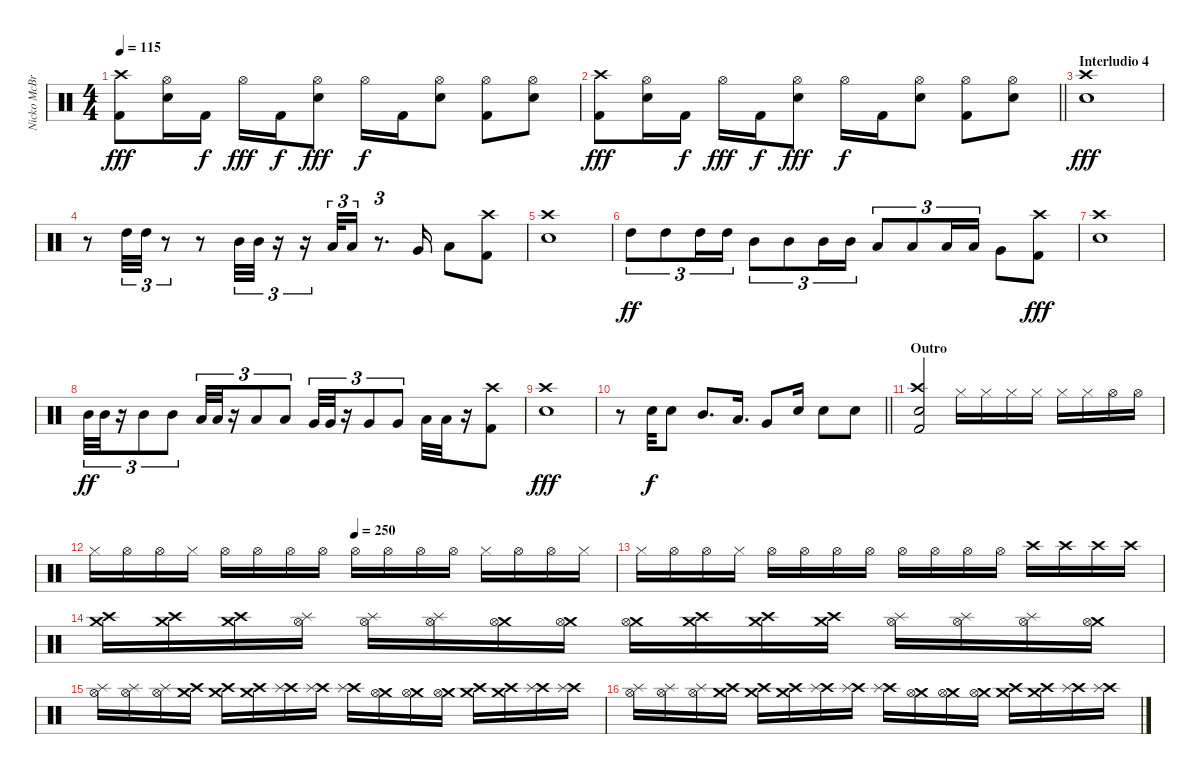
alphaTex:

\track ("Nicko McBrain" "Nicko McBr") {instrument percussion}
\staff {score}
\articulation defaults
\ts (4 4)
\tempo 115
\clef neutral
\ks c
("Kick (hit) 2" "Crash high (hit)").8{dy fff} ("Snare (hit) 2" "Hi-Hat (open)").16 "Kick (hit) 2".16{dy f} "Hi-Hat (open)".16{dy fff} "Kick (hit) 2".16{dy f} ("Snare (hit) 2" "Hi-Hat (open)").8{dy fff} "Hi-Hat (open)".16{dy f} "Kick (hit) 2".16 ("Snare (hit) 2" "Hi-Hat (open)").8 ("Kick (hit) 2" "Hi-Hat (open)").8 ("Snare (hit) 2" "Hi-Hat (open)").8 |
\barLineRight lightlight
("Kick (hit) 2" "Crash high (hit)").8{dy fff} ("Snare (hit) 2" "Hi-Hat (open)").16 "Kick (hit) 2".16{dy f} "Hi-Hat (open)".16{dy fff} "Kick (hit) 2".16{dy f} ("Snare (hit) 2" "Hi-Hat (open)").8{dy fff} "Hi-Hat (open)".16{dy f} "Kick (hit) 2".16 ("Snare (hit) 2" "Hi-Hat (open)").8 ("Kick (hit) 2" "Hi-Hat (open)").8 ("Snare (hit) 2" "Hi-Hat (open)").8 |
\section ("" "Interludio 4")
("Snare (hit) 2" "Crash high (hit)").1{dy fff} |
r.8 "High Tom (hit)".32{tu (3 2)} "High Tom (hit)".32{tu (3 2)} r.8{tu (3 2)} r.8 "Mid Tom (hit)".32{tu (3 2)} "Mid Tom (hit)".32{tu (3 2)} r.16{tu (3 2)} r.16{tu (3 2)} "Low Tom (hit)".32{tu (3 2)} "Low Tom (hit)".16{tu (3 2)} r.8{d tu (3 2)} "Very Low Tom (hit)".16 "Low Floor Tom (hit)".8 ("Kick (hit) 2" "Crash high (hit)").8 |
("Snare (hit) 2" "Crash high (hit)").1 |
"High Tom (hit)".8{tu (3 2) dy ff} "High Tom (hit)".8{tu (3 2)} "High Tom (hit)".16{tu (3 2)} "High Tom (hit)".16{tu (3 2)} "Mid Tom (hit)".8{tu (3 2)} "Mid Tom (hit)".8{tu (3 2)} "Mid Tom (hit)".16{tu (3 2)} "Mid Tom (hit)".16{tu (3 2)} "Low Tom (hit)".8{tu (3 2)} "Low Tom (hit)".8{tu (3 2)} "Low Tom (hit)".16{tu (3 2)} "Low Tom (hit)".16{tu (3 2)} "Very Low Tom (hit)".8 ("Kick (hit) 2" "Crash high (hit)").8{dy fff} |
("Snare (hit) 2" "Crash high (hit)").1 |
"Mid Tom (hit)".32{tu (3 2) dy ff} "Mid Tom (hit)".32{tu (3 2)} r.16{tu (3 2)} "Mid Tom (hit)".8{tu (3 2)} "Mid Tom (hit)".8{tu (3 2)} "Low Tom (hit)".32{tu (3 2)} "Low Tom (hit)".32{tu (3 2)} r.16{tu (3 2)} "Low Tom (hit)".8{tu (3 2)} "Low Tom (hit)".8{tu (3 2)} "Very Low Tom (hit)".32{tu (3 2)} "Very Low Tom (hit)".32{tu (3 2)} r.16{tu (3 2)} "Very Low Tom (hit)".8{tu (3 2)} "Very Low Tom (hit)".8{tu (3 2)} "Low Floor Tom (hit)".32 "Low Floor Tom (hit)".32 r.16 ("Kick (hit) 2" "Crash high (hit)").8 |
("Snare (hit) 2" "Crash high (hit)").1{dy fff} |
\barLineRight lightlight
r.8 "Snare (hit) 2".32{dy f} "Snare (hit) 2".8 "Mid Tom (hit)".8{d} "Low Tom (hit)".16{d} "Very Low Tom (hit)".8 "Snare (hit) 2".16 "Snare (hit) 2".8 "Snare (hit) 2".8 |
\section ("" "Outro")
("Snare (hit) 2" "Kick (hit) 2" "Crash high (hit)").2 "Hi-Hat (closed)".16 "Hi-Hat (closed)".16 "Hi-Hat (closed)".16 "Hi-Hat (closed)".16 "Hi-Hat (closed)".16 "Hi-Hat (closed)".16 "Hi-Hat (open)".16 "Hi-Hat (open)".16 |
\tempo (250 0.5)
"Hi-Hat (closed)".16 "Hi-Hat (open)".16 "Hi-Hat (open)".16 "Hi-Hat (closed)".16 "Hi-Hat (open)".16 "Hi-Hat (open)".16 "Hi-Hat (open)".16 "Hi-Hat (open)".16 "Hi-Hat (open)".16 "Hi-Hat (open)".16 "Hi-Hat (open)".16 "Hi-Hat (open)".16 "Hi-Hat (closed)".16 "Hi-Hat (open)".16 "Hi-Hat (open)".16 "Hi-Hat (closed)".16 |
"Hi-Hat (closed)".16 "Hi-Hat (open)".16 "Hi-Hat (open)".16 "Hi-Hat (closed)".16 "Hi-Hat (open)".16 "Hi-Hat (open)".16 "Hi-Hat (open)".16 "Hi-Hat (open)".16 "Hi-Hat (open)".16 "Hi-Hat (open)".16 "Hi-Hat (open)".16 "Hi-Hat (open)".16 "Crash high (hit)".16 "Crash high (hit)".16 "Crash high (hit)".16 "Crash high (hit)".16 |
("Crash high (hit)" "Crash medium (hit)").16 ("Crash high (hit)" "Crash medium (hit)").16 ("Crash high (hit)" "Crash medium (hit)").16 ("Splash (hit)" "Hi-Hat (open)").16 ("Splash (hit)" "Hi-Hat (open)").16 ("Splash (hit)" "Hi-Hat (open)").16 ("Crash medium (hit)" "Hi-Hat (open)").16 ("Crash medium (hit)" "Hi-Hat (open)").16 ("Crash medium (hit)" "Hi-Hat (open)").16 ("Crash high (hit)" "Crash medium (hit)").16 ("Crash high (hit)" "Crash medium (hit)").16 ("Crash high (hit)" "Crash medium (hit)").16 ("Splash (hit)" "Hi-Hat (open)").16 ("Splash (hit)" "Hi-Hat (open)").16 ("Splash (hit)" "Hi-Hat (open)").16 ("Crash medium (hit)" "Hi-Hat (open)").16 |
("Splash (hit)" "Hi-Hat (open)").16 ("Splash (hit)" "Hi-Hat (open)").16 ("Splash (hit)" "Hi-Hat (open)").16 ("Crash high (hit)" "Crash medium (hit)").16 ("Crash high (hit)" "Crash medium (hit)").16 ("Crash high (hit)" "Crash medium (hit)").16 ("Crash high (hit)" "Splash (hit)").16 ("Crash high (hit)" "Splash (hit)").16 ("Crash high (hit)" "Splash (hit)").16 ("Crash medium (hit)" "Hi-Hat (open)").16 ("Crash medium (hit)" "Hi-Hat (open)").16 ("Crash medium (hit)" "Hi-Hat (open)").16 ("Crash high (hit)" "Crash medium (hit)").16 ("Crash high (hit)" "Crash medium (hit)").16 ("Crash high (hit)" "Splash (hit)").16 ("Crash high (hit)" "Splash (hit)").16 |
("Splash (hit)" "Hi-Hat (open)").16 ("Splash (hit)" "Hi-Hat (open)").16 ("Splash (hit)" "Hi-Hat (open)").16 ("Crash high (hit)" "Crash medium (hit)").16 ("Crash high (hit)" "Crash medium (hit)").16 ("Crash high (hit)" "Crash medium (hit)").16 ("Crash high (hit)" "Splash (hit)").16 ("Crash high (hit)" "Splash (hit)").16 ("Crash high (hit)" "Splash (hit)").16 ("Crash medium (hit)" "Hi-Hat (open)").16 ("Crash medium (hit)" "Hi-Hat (open)").16 ("Crash medium (hit)" "Hi-Hat (open)").16 ("Crash high (hit)" "Crash medium (hit)").16 ("Crash high (hit)" "Crash medium (hit)").16 ("Crash high (hit)" "Splash (hit)").16 ("Crash high (hit)" "Splash (hit)").16
